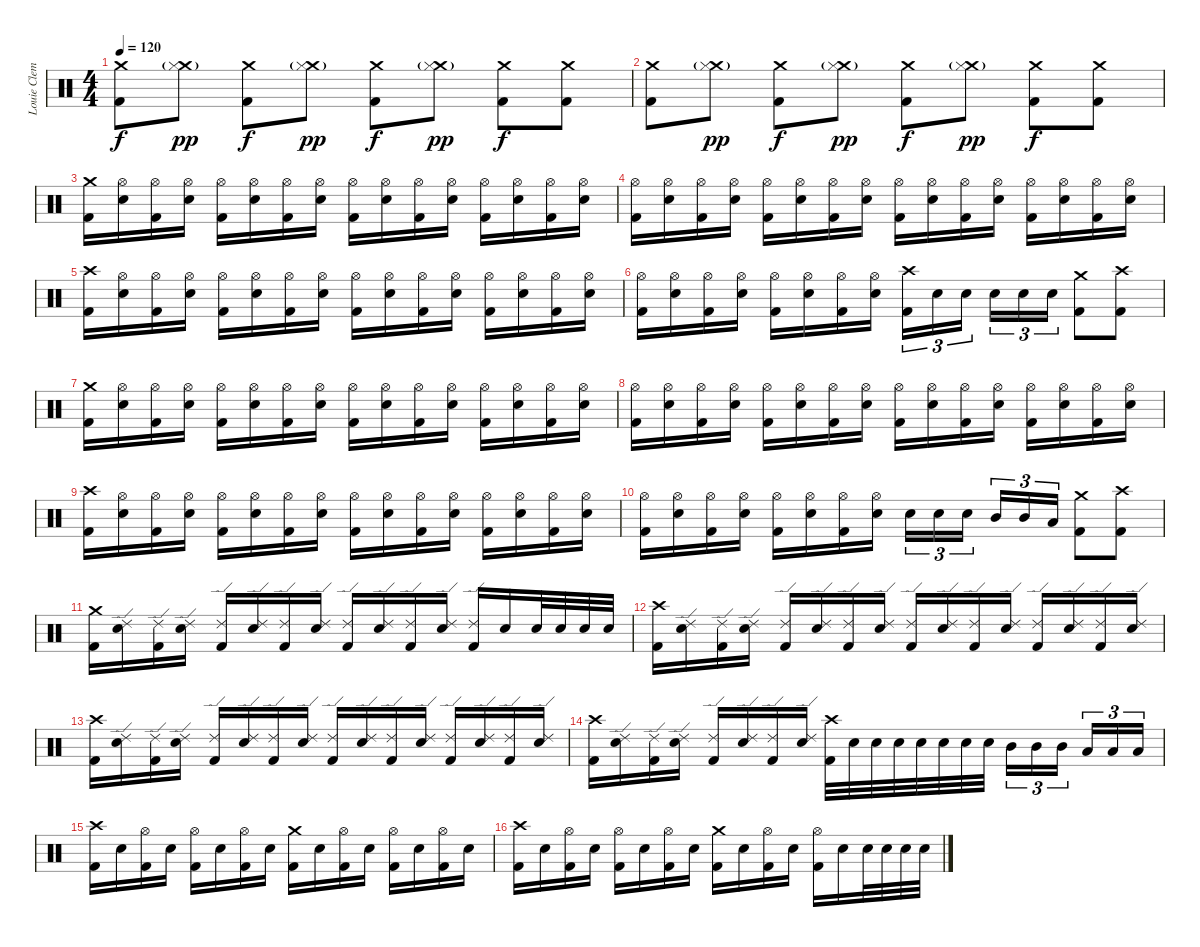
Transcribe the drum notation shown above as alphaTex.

\track ("Louie Clemente" "Louie Clem") {instrument percussion}
\staff {score}
\articulation defaults
\ts (4 4)
\tempo 120
\clef neutral
\ks c
("Crash medium (hit)" "Kick (hit) 2").8{dy f} ("Crash medium (hit)"{g} "Hi-Hat (closed)").8{dy pp} ("Crash medium (hit)" "Kick (hit) 2").8{dy f} ("Crash medium (hit)"{g} "Hi-Hat (closed)").8{dy pp} ("Crash medium (hit)" "Kick (hit) 2").8{dy f} ("Crash medium (hit)"{g} "Hi-Hat (closed)").8{dy pp} ("Crash medium (hit)" "Kick (hit) 2").8{dy f} ("Crash medium (hit)" "Kick (hit) 2").8 |
("Crash medium (hit)" "Kick (hit) 2").8 ("Crash medium (hit)"{g} "Hi-Hat (closed)").8{dy pp} ("Crash medium (hit)" "Kick (hit) 2").8{dy f} ("Crash medium (hit)"{g} "Hi-Hat (closed)").8{dy pp} ("Crash medium (hit)" "Kick (hit) 2").8{dy f} ("Crash medium (hit)"{g} "Hi-Hat (closed)").8{dy pp} ("Crash medium (hit)" "Kick (hit) 2").8{dy f} ("Crash medium (hit)" "Kick (hit) 2").8 |
("Crash medium (hit)" "Kick (hit) 2").16 ("Hi-Hat (open)" "Snare (hit) 2").16 ("Hi-Hat (open)" "Kick (hit) 2").16 ("Hi-Hat (open)" "Snare (hit) 2").16 ("Hi-Hat (open)" "Kick (hit) 2").16 ("Hi-Hat (open)" "Snare (hit) 2").16 ("Hi-Hat (open)" "Kick (hit) 2").16 ("Hi-Hat (open)" "Snare (hit) 2").16 ("Hi-Hat (open)" "Kick (hit) 2").16 ("Hi-Hat (open)" "Snare (hit) 2").16 ("Hi-Hat (open)" "Kick (hit) 2").16 ("Hi-Hat (open)" "Snare (hit) 2").16 ("Hi-Hat (open)" "Kick (hit) 2").16 ("Hi-Hat (open)" "Snare (hit) 2").16 ("Hi-Hat (open)" "Kick (hit) 2").16 ("Hi-Hat (open)" "Snare (hit) 2").16 |
("Hi-Hat (open)" "Kick (hit) 2").16 ("Hi-Hat (open)" "Snare (hit) 2").16 ("Hi-Hat (open)" "Kick (hit) 2").16 ("Hi-Hat (open)" "Snare (hit) 2").16 ("Hi-Hat (open)" "Kick (hit) 2").16 ("Hi-Hat (open)" "Snare (hit) 2").16 ("Hi-Hat (open)" "Kick (hit) 2").16 ("Hi-Hat (open)" "Snare (hit) 2").16 ("Hi-Hat (open)" "Kick (hit) 2").16 ("Hi-Hat (open)" "Snare (hit) 2").16 ("Hi-Hat (open)" "Kick (hit) 2").16 ("Hi-Hat (open)" "Snare (hit) 2").16 ("Hi-Hat (open)" "Kick (hit) 2").16 ("Hi-Hat (open)" "Snare (hit) 2").16 ("Hi-Hat (open)" "Kick (hit) 2").16 ("Hi-Hat (open)" "Snare (hit) 2").16 |
("Crash high (hit)" "Kick (hit) 2").16 ("Hi-Hat (open)" "Snare (hit) 2").16 ("Hi-Hat (open)" "Kick (hit) 2").16 ("Hi-Hat (open)" "Snare (hit) 2").16 ("Hi-Hat (open)" "Kick (hit) 2").16 ("Hi-Hat (open)" "Snare (hit) 2").16 ("Hi-Hat (open)" "Kick (hit) 2").16 ("Hi-Hat (open)" "Snare (hit) 2").16 ("Hi-Hat (open)" "Kick (hit) 2").16 ("Hi-Hat (open)" "Snare (hit) 2").16 ("Hi-Hat (open)" "Kick (hit) 2").16 ("Hi-Hat (open)" "Snare (hit) 2").16 ("Hi-Hat (open)" "Kick (hit) 2").16 ("Hi-Hat (open)" "Snare (hit) 2").16 ("Hi-Hat (open)" "Kick (hit) 2").16 ("Hi-Hat (open)" "Snare (hit) 2").16 |
("Hi-Hat (open)" "Kick (hit) 2").16 ("Hi-Hat (open)" "Snare (hit) 2").16 ("Hi-Hat (open)" "Kick (hit) 2").16 ("Hi-Hat (open)" "Snare (hit) 2").16 ("Hi-Hat (open)" "Kick (hit) 2").16 ("Hi-Hat (open)" "Snare (hit) 2").16 ("Hi-Hat (open)" "Kick (hit) 2").16 ("Hi-Hat (open)" "Snare (hit) 2").16 ("Crash high (hit)" "Kick (hit) 2").16{tu (3 2)} "Snare (hit) 2".16{tu (3 2)} "Snare (hit) 2".16{tu (3 2)} "Snare (hit) 2".16{tu (3 2)} "Snare (hit) 2".16{tu (3 2)} "Snare (hit) 2".16{tu (3 2)} ("Crash medium (hit)" "Kick (hit) 2").8 ("Crash high (hit)" "Kick (hit) 2").8 |
("Crash medium (hit)" "Kick (hit) 2").16 ("Hi-Hat (open)" "Snare (hit) 2").16 ("Hi-Hat (open)" "Kick (hit) 2").16 ("Hi-Hat (open)" "Snare (hit) 2").16 ("Hi-Hat (open)" "Kick (hit) 2").16 ("Hi-Hat (open)" "Snare (hit) 2").16 ("Hi-Hat (open)" "Kick (hit) 2").16 ("Hi-Hat (open)" "Snare (hit) 2").16 ("Hi-Hat (open)" "Kick (hit) 2").16 ("Hi-Hat (open)" "Snare (hit) 2").16 ("Hi-Hat (open)" "Kick (hit) 2").16 ("Hi-Hat (open)" "Snare (hit) 2").16 ("Hi-Hat (open)" "Kick (hit) 2").16 ("Hi-Hat (open)" "Snare (hit) 2").16 ("Hi-Hat (open)" "Kick (hit) 2").16 ("Hi-Hat (open)" "Snare (hit) 2").16 |
("Hi-Hat (open)" "Kick (hit) 2").16 ("Hi-Hat (open)" "Snare (hit) 2").16 ("Hi-Hat (open)" "Kick (hit) 2").16 ("Hi-Hat (open)" "Snare (hit) 2").16 ("Hi-Hat (open)" "Kick (hit) 2").16 ("Hi-Hat (open)" "Snare (hit) 2").16 ("Hi-Hat (open)" "Kick (hit) 2").16 ("Hi-Hat (open)" "Snare (hit) 2").16 ("Hi-Hat (open)" "Kick (hit) 2").16 ("Hi-Hat (open)" "Snare (hit) 2").16 ("Hi-Hat (open)" "Kick (hit) 2").16 ("Hi-Hat (open)" "Snare (hit) 2").16 ("Hi-Hat (open)" "Kick (hit) 2").16 ("Hi-Hat (open)" "Snare (hit) 2").16 ("Hi-Hat (open)" "Kick (hit) 2").16 ("Hi-Hat (open)" "Snare (hit) 2").16 |
("Crash high (hit)" "Kick (hit) 2").16 ("Hi-Hat (open)" "Snare (hit) 2").16 ("Hi-Hat (open)" "Kick (hit) 2").16 ("Hi-Hat (open)" "Snare (hit) 2").16 ("Hi-Hat (open)" "Kick (hit) 2").16 ("Hi-Hat (open)" "Snare (hit) 2").16 ("Hi-Hat (open)" "Kick (hit) 2").16 ("Hi-Hat (open)" "Snare (hit) 2").16 ("Hi-Hat (open)" "Kick (hit) 2").16 ("Hi-Hat (open)" "Snare (hit) 2").16 ("Hi-Hat (open)" "Kick (hit) 2").16 ("Hi-Hat (open)" "Snare (hit) 2").16 ("Hi-Hat (open)" "Kick (hit) 2").16 ("Hi-Hat (open)" "Snare (hit) 2").16 ("Hi-Hat (open)" "Kick (hit) 2").16 ("Hi-Hat (open)" "Snare (hit) 2").16 |
("Hi-Hat (open)" "Kick (hit) 2").16 ("Hi-Hat (open)" "Snare (hit) 2").16 ("Hi-Hat (open)" "Kick (hit) 2").16 ("Hi-Hat (open)" "Snare (hit) 2").16 ("Hi-Hat (open)" "Kick (hit) 2").16 ("Hi-Hat (open)" "Snare (hit) 2").16 ("Hi-Hat (open)" "Kick (hit) 2").16 ("Hi-Hat (open)" "Snare (hit) 2").16 "Snare (hit) 2".16{tu (3 2)} "Snare (hit) 2".16{tu (3 2)} "Snare (hit) 2".16{tu (3 2)} "Mid Tom (hit)".16{tu (3 2)} "Mid Tom (hit)".16{tu (3 2)} "Low Tom (hit)".16{tu (3 2)} ("Crash medium (hit)" "Kick (hit) 2").8 ("Crash high (hit)" "Kick (hit) 2").8 |
("Crash medium (hit)" "Kick (hit) 2").16 ("Ride (edge) 2" "Snare (hit) 2").16 ("Ride (edge) 2" "Kick (hit) 2").16 ("Ride (edge) 2" "Snare (hit) 2").16 ("Ride (edge) 2" "Kick (hit) 2").16 ("Ride (edge) 2" "Snare (hit) 2").16 ("Ride (edge) 2" "Kick (hit) 2").16 ("Ride (edge) 2" "Snare (hit) 2").16 ("Ride (edge) 2" "Kick (hit) 2").16 ("Ride (edge) 2" "Snare (hit) 2").16 ("Ride (edge) 2" "Kick (hit) 2").16 ("Ride (edge) 2" "Snare (hit) 2").16 ("Ride (edge) 2" "Kick (hit) 2").16 "Snare (hit) 2".16 "Snare (hit) 2".32 "Snare (hit) 2".32 "Snare (hit) 2".32 "Snare (hit) 2".32 |
("Crash high (hit)" "Kick (hit) 2").16 ("Ride (edge) 2" "Snare (hit) 2").16 ("Ride (edge) 2" "Kick (hit) 2").16 ("Ride (edge) 2" "Snare (hit) 2").16 ("Ride (edge) 2" "Kick (hit) 2").16 ("Ride (edge) 2" "Snare (hit) 2").16 ("Ride (edge) 2" "Kick (hit) 2").16 ("Ride (edge) 2" "Snare (hit) 2").16 ("Ride (edge) 2" "Kick (hit) 2").16 ("Ride (edge) 2" "Snare (hit) 2").16 ("Ride (edge) 2" "Kick (hit) 2").16 ("Ride (edge) 2" "Snare (hit) 2").16 ("Ride (edge) 2" "Kick (hit) 2").16 ("Ride (edge) 2" "Snare (hit) 2").16 ("Ride (edge) 2" "Kick (hit) 2").16 ("Ride (edge) 2" "Snare (hit) 2").16 |
("Crash high (hit)" "Kick (hit) 2").16 ("Ride (edge) 2" "Snare (hit) 2").16 ("Ride (edge) 2" "Kick (hit) 2").16 ("Ride (edge) 2" "Snare (hit) 2").16 ("Ride (edge) 2" "Kick (hit) 2").16 ("Ride (edge) 2" "Snare (hit) 2").16 ("Ride (edge) 2" "Kick (hit) 2").16 ("Ride (edge) 2" "Snare (hit) 2").16 ("Ride (edge) 2" "Kick (hit) 2").16 ("Ride (edge) 2" "Snare (hit) 2").16 ("Ride (edge) 2" "Kick (hit) 2").16 ("Ride (edge) 2" "Snare (hit) 2").16 ("Ride (edge) 2" "Kick (hit) 2").16 ("Ride (edge) 2" "Snare (hit) 2").16 ("Ride (edge) 2" "Kick (hit) 2").16 ("Ride (edge) 2" "Snare (hit) 2").16 |
("Crash high (hit)" "Kick (hit) 2").16 ("Ride (edge) 2" "Snare (hit) 2").16 ("Ride (edge) 2" "Kick (hit) 2").16 ("Ride (edge) 2" "Snare (hit) 2").16 ("Ride (edge) 2" "Kick (hit) 2").16 ("Ride (edge) 2" "Snare (hit) 2").16 ("Ride (edge) 2" "Kick (hit) 2").16 ("Ride (edge) 2" "Snare (hit) 2").16 ("Crash high (hit)" "Kick (hit) 2").32 "Snare (hit) 2".32 "Snare (hit) 2".32 "Snare (hit) 2".32 "Snare (hit) 2".32 "Snare (hit) 2".32 "Snare (hit) 2".32 "Snare (hit) 2".32 "Mid Tom (hit)".16{tu (3 2)} "Mid Tom (hit)".16{tu (3 2)} "Mid Tom (hit)".16{tu (3 2)} "Low Tom (hit)".16{tu (3 2)} "Low Tom (hit)".16{tu (3 2)} "Low Tom (hit)".16{tu (3 2)} |
("Crash high (hit)" "Kick (hit) 2").16 "Snare (hit) 2".16 ("Hi-Hat (open)" "Kick (hit) 2").16 "Snare (hit) 2".16 ("Hi-Hat (open)" "Kick (hit) 2").16 "Snare (hit) 2".16 ("Hi-Hat (open)" "Kick (hit) 2").16 "Snare (hit) 2".16 ("Crash medium (hit)" "Kick (hit) 2").16 "Snare (hit) 2".16 ("Hi-Hat (open)" "Kick (hit) 2").16 "Snare (hit) 2".16 ("Hi-Hat (open)" "Kick (hit) 2").16 "Snare (hit) 2".16 ("Hi-Hat (open)" "Kick (hit) 2").16 "Snare (hit) 2".16 |
("Crash high (hit)" "Kick (hit) 2").16 "Snare (hit) 2".16 ("Hi-Hat (open)" "Kick (hit) 2").16 "Snare (hit) 2".16 ("Hi-Hat (open)" "Kick (hit) 2").16 "Snare (hit) 2".16 ("Hi-Hat (open)" "Kick (hit) 2").16 "Snare (hit) 2".16 ("Crash medium (hit)" "Kick (hit) 2").16 "Snare (hit) 2".16 ("Hi-Hat (open)" "Kick (hit) 2").16 "Snare (hit) 2".16 ("Hi-Hat (open)" "Kick (hit) 2").16 "Snare (hit) 2".16 "Snare (hit) 2".32 "Snare (hit) 2".32 "Snare (hit) 2".32 "Snare (hit) 2".32
